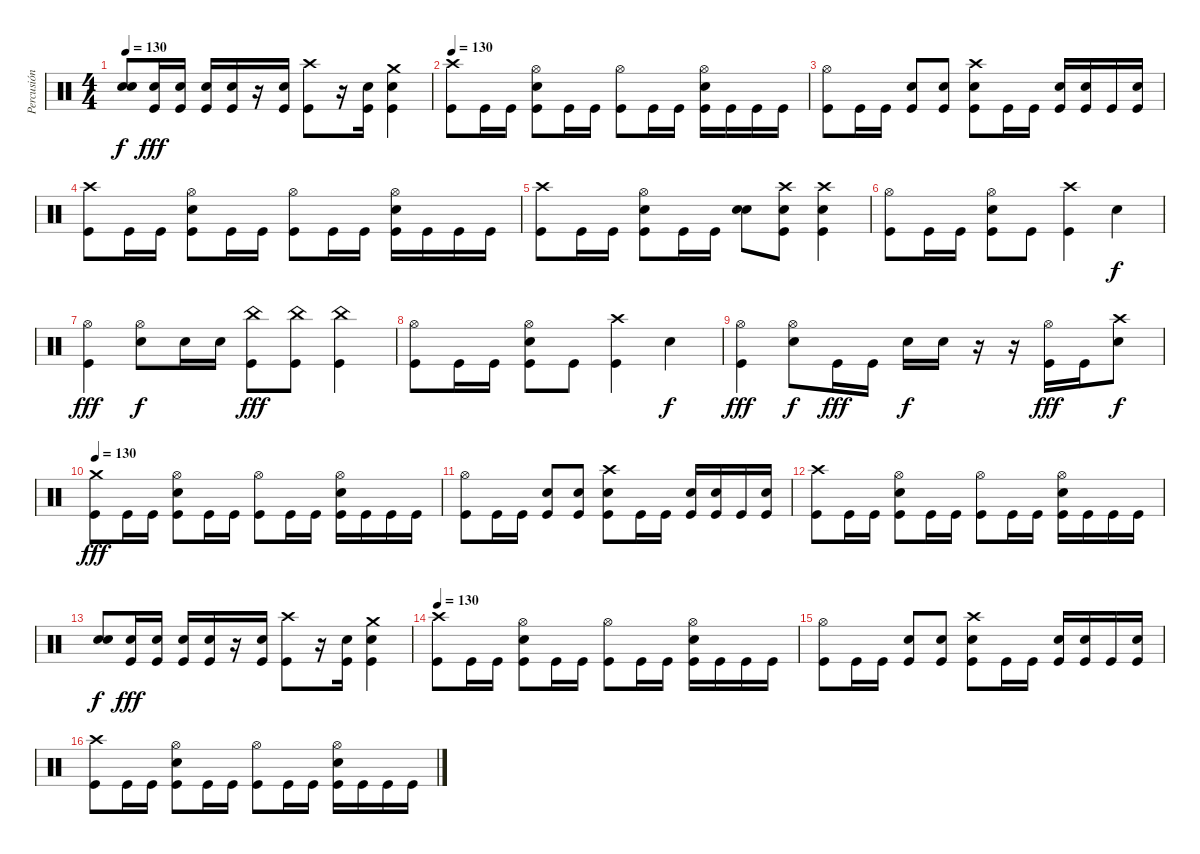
\track ("Percusión" "Percusión") {instrument percussion}
\staff {score}
\articulation defaults
\ts (4 4)
\tempo 130
\clef neutral
\ks c
("Electric Snare (hit)" "Electric Snare (hit)").8{bd 480 dy f} ("Electric Snare (hit)" "Kick (hit)").16{dy fff} ("Electric Snare (hit)" "Kick (hit)").16 ("Electric Snare (hit)" "Kick (hit)").16 ("Electric Snare (hit)" "Kick (hit)").16 r.16 ("Electric Snare (hit)" "Kick (hit)").16 ("Crash high (hit)" "Kick (hit)").8 r.16 ("Electric Snare (hit)" "Kick (hit)").16 ("Crash medium (hit)" "Electric Snare (hit)" "Kick (hit)").4 |
\tempo 130
("Crash high (hit)" "Kick (hit)").8 "Kick (hit)".16 "Kick (hit)".16 ("Hi-Hat (open)" "Electric Snare (hit)" "Kick (hit)").8 "Kick (hit)".16 "Kick (hit)".16 ("Hi-Hat (open)" "Kick (hit)").8 "Kick (hit)".16 "Kick (hit)".16 ("Hi-Hat (open)" "Electric Snare (hit)" "Kick (hit)").16 "Kick (hit)".16 "Kick (hit)".16 "Kick (hit)".16 |
("Hi-Hat (open)" "Kick (hit)").8 "Kick (hit)".16 "Kick (hit)".16 ("Electric Snare (hit)" "Kick (hit)").8 ("Electric Snare (hit)" "Kick (hit)").8 ("Crash high (hit)" "Electric Snare (hit)" "Kick (hit)").8 "Kick (hit)".16 "Kick (hit)".16 ("Electric Snare (hit)" "Kick (hit)").16 ("Electric Snare (hit)" "Kick (hit)").16 "Kick (hit)".16 ("Electric Snare (hit)" "Kick (hit)").16 |
("Crash high (hit)" "Kick (hit)").8 "Kick (hit)".16 "Kick (hit)".16 ("Hi-Hat (open)" "Electric Snare (hit)" "Kick (hit)").8 "Kick (hit)".16 "Kick (hit)".16 ("Hi-Hat (open)" "Kick (hit)").8 "Kick (hit)".16 "Kick (hit)".16 ("Hi-Hat (open)" "Electric Snare (hit)" "Kick (hit)").16 "Kick (hit)".16 "Kick (hit)".16 "Kick (hit)".16 |
("Crash high (hit)" "Kick (hit)").8 "Kick (hit)".16 "Kick (hit)".16 ("Hi-Hat (open)" "Electric Snare (hit)" "Kick (hit)").8 "Kick (hit)".16 "Kick (hit)".16 ("Electric Snare (hit)" "Electric Snare (hit)").8{bd 480} ("Crash high (hit)" "Electric Snare (hit)" "Kick (hit)").8 ("Crash high (hit)" "Electric Snare (hit)" "Kick (hit)").4 |
("Hi-Hat (open)" "Kick (hit)").8 "Kick (hit)".16 "Kick (hit)".16 ("Hi-Hat (open)" "Electric Snare (hit)" "Kick (hit)").8 "Kick (hit)".8 ("Crash high (hit)" "Kick (hit)").4 "Electric Snare (hit)".4{dy f} |
("Hi-Hat (open)" "Kick (hit)").4{dy fff} ("Hi-Hat (open)" "Electric Snare (hit)").8{dy f} "Electric Snare (hit)".16 "Electric Snare (hit)".16 ("China (hit)" "Kick (hit)").8{dy fff} ("China (hit)" "Kick (hit)").8 ("China (hit)" "Kick (hit)").4 |
("Hi-Hat (open)" "Kick (hit)").8 "Kick (hit)".16 "Kick (hit)".16 ("Hi-Hat (open)" "Electric Snare (hit)" "Kick (hit)").8 "Kick (hit)".8 ("Crash high (hit)" "Kick (hit)").4 "Electric Snare (hit)".4{dy f} |
("Hi-Hat (open)" "Kick (hit)").4{dy fff} ("Hi-Hat (open)" "Electric Snare (hit)").8{dy f} "Kick (hit)".16{dy fff} "Kick (hit)".16 "Electric Snare (hit)".16{dy f} "Electric Snare (hit)".16 r.16 r.16 ("Hi-Hat (open)" "Kick (hit)").16{dy fff} "Kick (hit)".16 ("Crash high (hit)" "Electric Snare (hit)").8{dy f} |
\tempo 130
("Crash medium (hit)" "Kick (hit)").8{dy fff} "Kick (hit)".16 "Kick (hit)".16 ("Hi-Hat (open)" "Electric Snare (hit)" "Kick (hit)").8 "Kick (hit)".16 "Kick (hit)".16 ("Hi-Hat (open)" "Kick (hit)").8 "Kick (hit)".16 "Kick (hit)".16 ("Hi-Hat (open)" "Electric Snare (hit)" "Kick (hit)").16 "Kick (hit)".16 "Kick (hit)".16 "Kick (hit)".16 |
("Hi-Hat (open)" "Kick (hit)").8 "Kick (hit)".16 "Kick (hit)".16 ("Electric Snare (hit)" "Kick (hit)").8 ("Electric Snare (hit)" "Kick (hit)").8 ("Crash high (hit)" "Electric Snare (hit)" "Kick (hit)").8 "Kick (hit)".16 "Kick (hit)".16 ("Electric Snare (hit)" "Kick (hit)").16 ("Electric Snare (hit)" "Kick (hit)").16 "Kick (hit)".16 ("Electric Snare (hit)" "Kick (hit)").16 |
("Crash high (hit)" "Kick (hit)").8 "Kick (hit)".16 "Kick (hit)".16 ("Hi-Hat (open)" "Electric Snare (hit)" "Kick (hit)").8 "Kick (hit)".16 "Kick (hit)".16 ("Hi-Hat (open)" "Kick (hit)").8 "Kick (hit)".16 "Kick (hit)".16 ("Hi-Hat (open)" "Electric Snare (hit)" "Kick (hit)").16 "Kick (hit)".16 "Kick (hit)".16 "Kick (hit)".16 |
("Electric Snare (hit)" "Electric Snare (hit)").8{bd 480 dy f} ("Electric Snare (hit)" "Kick (hit)").16{dy fff} ("Electric Snare (hit)" "Kick (hit)").16 ("Electric Snare (hit)" "Kick (hit)").16 ("Electric Snare (hit)" "Kick (hit)").16 r.16 ("Electric Snare (hit)" "Kick (hit)").16 ("Crash high (hit)" "Kick (hit)").8 r.16 ("Electric Snare (hit)" "Kick (hit)").16 ("Crash medium (hit)" "Electric Snare (hit)" "Kick (hit)").4 |
\tempo 130
("Crash high (hit)" "Kick (hit)").8 "Kick (hit)".16 "Kick (hit)".16 ("Hi-Hat (open)" "Electric Snare (hit)" "Kick (hit)").8 "Kick (hit)".16 "Kick (hit)".16 ("Hi-Hat (open)" "Kick (hit)").8 "Kick (hit)".16 "Kick (hit)".16 ("Hi-Hat (open)" "Electric Snare (hit)" "Kick (hit)").16 "Kick (hit)".16 "Kick (hit)".16 "Kick (hit)".16 |
("Hi-Hat (open)" "Kick (hit)").8 "Kick (hit)".16 "Kick (hit)".16 ("Electric Snare (hit)" "Kick (hit)").8 ("Electric Snare (hit)" "Kick (hit)").8 ("Crash high (hit)" "Electric Snare (hit)" "Kick (hit)").8 "Kick (hit)".16 "Kick (hit)".16 ("Electric Snare (hit)" "Kick (hit)").16 ("Electric Snare (hit)" "Kick (hit)").16 "Kick (hit)".16 ("Electric Snare (hit)" "Kick (hit)").16 |
("Crash high (hit)" "Kick (hit)").8 "Kick (hit)".16 "Kick (hit)".16 ("Hi-Hat (open)" "Electric Snare (hit)" "Kick (hit)").8 "Kick (hit)".16 "Kick (hit)".16 ("Hi-Hat (open)" "Kick (hit)").8 "Kick (hit)".16 "Kick (hit)".16 ("Hi-Hat (open)" "Electric Snare (hit)" "Kick (hit)").16 "Kick (hit)".16 "Kick (hit)".16 "Kick (hit)".16
